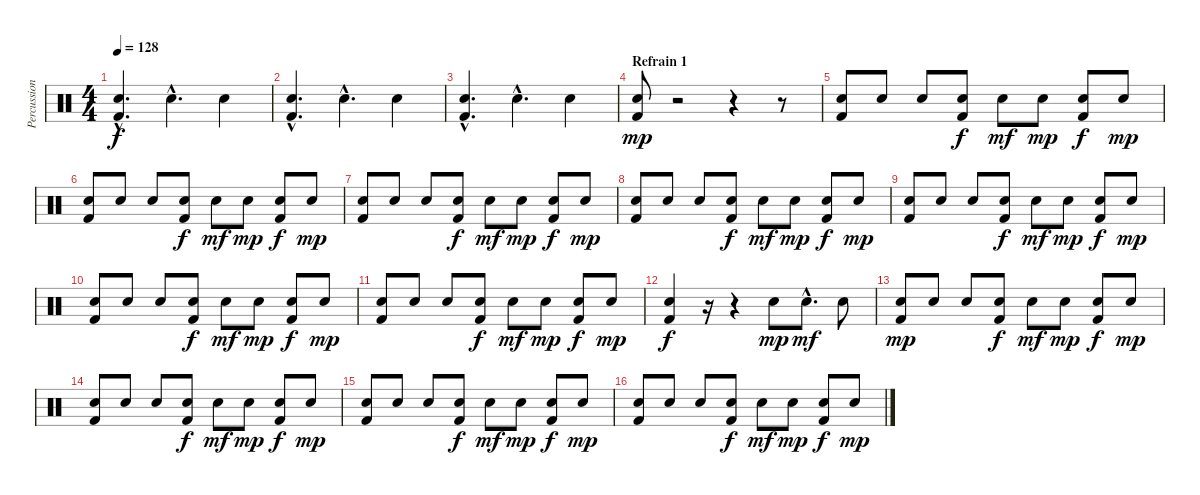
\track ("Percussions" "Percussion") {instrument percussion}
\staff {score}
\articulation defaults
\ts (4 4)
\tempo 128
\clef neutral
\ks c
("Electric Snare (hit)"{hac} "Kick (hit) 2"{hac}).4{d dy f} "Electric Snare (hit)"{hac}.4{d} "Electric Snare (hit)".4 |
("Electric Snare (hit)"{hac} "Kick (hit) 2"{hac}).4{d} "Electric Snare (hit)"{hac}.4{d} "Electric Snare (hit)".4 |
("Electric Snare (hit)"{hac} "Kick (hit) 2"{hac}).4{d} "Electric Snare (hit)"{hac}.4{d} "Electric Snare (hit)".4 |
\section ("" "Refrain 1")
("Electric Snare (hit)" "Kick (hit) 2").8{dy mp} r.2 r.4 r.8 |
("Electric Snare (hit)" "Kick (hit) 2").8 "Electric Snare (hit)".8 "Electric Snare (hit)".8 ("Electric Snare (hit)" "Kick (hit) 2").8{dy f} "Electric Snare (hit)".8{dy mf} "Electric Snare (hit)".8{dy mp} ("Electric Snare (hit)" "Kick (hit) 2").8{dy f} "Electric Snare (hit)".8{dy mp} |
("Electric Snare (hit)" "Kick (hit) 2").8 "Electric Snare (hit)".8 "Electric Snare (hit)".8 ("Electric Snare (hit)" "Kick (hit) 2").8{dy f} "Electric Snare (hit)".8{dy mf} "Electric Snare (hit)".8{dy mp} ("Electric Snare (hit)" "Kick (hit) 2").8{dy f} "Electric Snare (hit)".8{dy mp} |
("Electric Snare (hit)" "Kick (hit) 2").8 "Electric Snare (hit)".8 "Electric Snare (hit)".8 ("Electric Snare (hit)" "Kick (hit) 2").8{dy f} "Electric Snare (hit)".8{dy mf} "Electric Snare (hit)".8{dy mp} ("Electric Snare (hit)" "Kick (hit) 2").8{dy f} "Electric Snare (hit)".8{dy mp} |
("Electric Snare (hit)" "Kick (hit) 2").8 "Electric Snare (hit)".8 "Electric Snare (hit)".8 ("Electric Snare (hit)" "Kick (hit) 2").8{dy f} "Electric Snare (hit)".8{dy mf} "Electric Snare (hit)".8{dy mp} ("Electric Snare (hit)" "Kick (hit) 2").8{dy f} "Electric Snare (hit)".8{dy mp} |
("Electric Snare (hit)" "Kick (hit) 2").8 "Electric Snare (hit)".8 "Electric Snare (hit)".8 ("Electric Snare (hit)" "Kick (hit) 2").8{dy f} "Electric Snare (hit)".8{dy mf} "Electric Snare (hit)".8{dy mp} ("Electric Snare (hit)" "Kick (hit) 2").8{dy f} "Electric Snare (hit)".8{dy mp} |
("Electric Snare (hit)" "Kick (hit) 2").8 "Electric Snare (hit)".8 "Electric Snare (hit)".8 ("Electric Snare (hit)" "Kick (hit) 2").8{dy f} "Electric Snare (hit)".8{dy mf} "Electric Snare (hit)".8{dy mp} ("Electric Snare (hit)" "Kick (hit) 2").8{dy f} "Electric Snare (hit)".8{dy mp} |
("Electric Snare (hit)" "Kick (hit) 2").8 "Electric Snare (hit)".8 "Electric Snare (hit)".8 ("Electric Snare (hit)" "Kick (hit) 2").8{dy f} "Electric Snare (hit)".8{dy mf} "Electric Snare (hit)".8{dy mp} ("Electric Snare (hit)" "Kick (hit) 2").8{dy f} "Electric Snare (hit)".8{dy mp} |
("Electric Snare (hit)" "Kick (hit) 2").4{dy f} r.16 r.4 "Electric Snare (hit)".8{dy mp} "Electric Snare (hit)"{hac}.8{d dy mf} "Electric Snare (hit)".8 |
("Electric Snare (hit)" "Kick (hit) 2").8{dy mp} "Electric Snare (hit)".8 "Electric Snare (hit)".8 ("Electric Snare (hit)" "Kick (hit) 2").8{dy f} "Electric Snare (hit)".8{dy mf} "Electric Snare (hit)".8{dy mp} ("Electric Snare (hit)" "Kick (hit) 2").8{dy f} "Electric Snare (hit)".8{dy mp} |
("Electric Snare (hit)" "Kick (hit) 2").8 "Electric Snare (hit)".8 "Electric Snare (hit)".8 ("Electric Snare (hit)" "Kick (hit) 2").8{dy f} "Electric Snare (hit)".8{dy mf} "Electric Snare (hit)".8{dy mp} ("Electric Snare (hit)" "Kick (hit) 2").8{dy f} "Electric Snare (hit)".8{dy mp} |
("Electric Snare (hit)" "Kick (hit) 2").8 "Electric Snare (hit)".8 "Electric Snare (hit)".8 ("Electric Snare (hit)" "Kick (hit) 2").8{dy f} "Electric Snare (hit)".8{dy mf} "Electric Snare (hit)".8{dy mp} ("Electric Snare (hit)" "Kick (hit) 2").8{dy f} "Electric Snare (hit)".8{dy mp} |
("Electric Snare (hit)" "Kick (hit) 2").8 "Electric Snare (hit)".8 "Electric Snare (hit)".8 ("Electric Snare (hit)" "Kick (hit) 2").8{dy f} "Electric Snare (hit)".8{dy mf} "Electric Snare (hit)".8{dy mp} ("Electric Snare (hit)" "Kick (hit) 2").8{dy f} "Electric Snare (hit)".8{dy mp}
